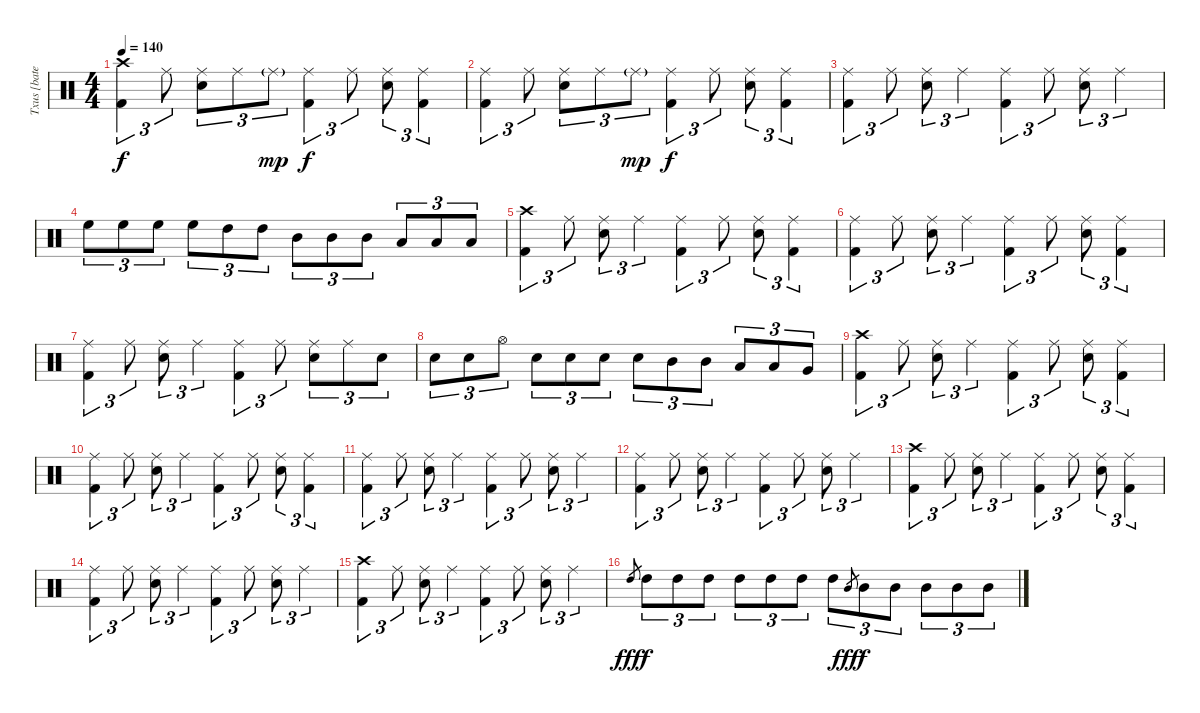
\track ("Txus [bateria]" "Txus [bate") {instrument percussion}
\staff {score}
\articulation defaults
\ts (4 4)
\tempo 140
\clef neutral
\ks c
("Crash high (hit)" "Kick (hit) 2").4{tu (3 2) dy f} "Ride (middle)".8{tu (3 2)} ("Ride (middle)" "Snare (hit) 2").8{tu (3 2)} "Ride (middle)".8{tu (3 2)} "Ride (middle)"{g}.8{tu (3 2) dy mp} ("Ride (middle)" "Kick (hit) 2").4{tu (3 2) dy f} "Ride (middle)".8{tu (3 2)} ("Ride (middle)" "Snare (hit) 2").8{tu (3 2)} ("Ride (middle)" "Kick (hit) 2").4{tu (3 2)} |
("Ride (middle)" "Kick (hit) 2").4{tu (3 2)} "Ride (middle)".8{tu (3 2)} ("Ride (middle)" "Snare (hit) 2").8{tu (3 2)} "Ride (middle)".8{tu (3 2)} "Ride (middle)"{g}.8{tu (3 2) dy mp} ("Ride (middle)" "Kick (hit) 2").4{tu (3 2) dy f} "Ride (middle)".8{tu (3 2)} ("Ride (middle)" "Snare (hit) 2").8{tu (3 2)} ("Ride (middle)" "Kick (hit) 2").4{tu (3 2)} |
("Ride (middle)" "Kick (hit) 2").4{tu (3 2)} "Ride (middle)".8{tu (3 2)} ("Ride (middle)" "Snare (hit) 2").8{tu (3 2)} "Ride (middle)".4{tu (3 2)} ("Ride (middle)" "Kick (hit) 2").4{tu (3 2)} "Ride (middle)".8{tu (3 2)} ("Ride (middle)" "Snare (hit) 2").8{tu (3 2)} "Ride (middle)".4{tu (3 2)} |
"High Floor Tom (hit)".8{tu (3 2)} "High Floor Tom (hit)".8{tu (3 2)} "High Floor Tom (hit)".8{tu (3 2)} "High Floor Tom (hit)".8{tu (3 2)} "High Tom (hit)".8{tu (3 2)} "High Tom (hit)".8{tu (3 2)} "Mid Tom (hit)".8{tu (3 2)} "Mid Tom (hit)".8{tu (3 2)} "Mid Tom (hit)".8{tu (3 2)} "Low Tom (hit)".8{tu (3 2)} "Low Tom (hit)".8{tu (3 2)} "Low Tom (hit)".8{tu (3 2)} |
("Crash high (hit)" "Kick (hit) 2").4{tu (3 2)} "Ride (middle)".8{tu (3 2)} ("Ride (middle)" "Snare (hit) 2").8{tu (3 2)} "Ride (middle)".4{tu (3 2)} ("Ride (middle)" "Kick (hit) 2").4{tu (3 2)} "Ride (middle)".8{tu (3 2)} ("Ride (middle)" "Snare (hit) 2").8{tu (3 2)} ("Ride (middle)" "Kick (hit) 2").4{tu (3 2)} |
("Ride (middle)" "Kick (hit) 2").4{tu (3 2)} "Ride (middle)".8{tu (3 2)} ("Ride (middle)" "Snare (hit) 2").8{tu (3 2)} "Ride (middle)".4{tu (3 2)} ("Ride (middle)" "Kick (hit) 2").4{tu (3 2)} "Ride (middle)".8{tu (3 2)} ("Ride (middle)" "Snare (hit) 2").8{tu (3 2)} ("Ride (middle)" "Kick (hit) 2").4{tu (3 2)} |
("Ride (middle)" "Kick (hit) 2").4{tu (3 2)} "Ride (middle)".8{tu (3 2)} ("Ride (middle)" "Snare (hit) 2").8{tu (3 2)} "Ride (middle)".4{tu (3 2)} ("Ride (middle)" "Kick (hit) 2").4{tu (3 2)} "Ride (middle)".8{tu (3 2)} ("Ride (middle)" "Snare (hit) 2").8{tu (3 2)} "Ride (middle)".8{tu (3 2)} "Snare (hit) 2".8{tu (3 2)} |
"Snare (hit) 2".8{tu (3 2)} "Snare (hit) 2".8{tu (3 2)} "Hi-Hat (open)".8{tu (3 2)} "Snare (hit) 2".8{tu (3 2)} "Snare (hit) 2".8{tu (3 2)} "Snare (hit) 2".8{tu (3 2)} "Snare (hit) 2".8{tu (3 2)} "Mid Tom (hit)".8{tu (3 2)} "Mid Tom (hit)".8{tu (3 2)} "Low Tom (hit)".8{tu (3 2)} "Low Tom (hit)".8{tu (3 2)} "Very Low Tom (hit)".8{tu (3 2)} |
("Crash high (hit)" "Kick (hit) 2").4{tu (3 2)} "Ride (middle)".8{tu (3 2)} ("Ride (middle)" "Snare (hit) 2").8{tu (3 2)} "Ride (middle)".4{tu (3 2)} ("Ride (middle)" "Kick (hit) 2").4{tu (3 2)} "Ride (middle)".8{tu (3 2)} ("Ride (middle)" "Snare (hit) 2").8{tu (3 2)} ("Ride (middle)" "Kick (hit) 2").4{tu (3 2)} |
("Ride (middle)" "Kick (hit) 2").4{tu (3 2)} "Ride (middle)".8{tu (3 2)} ("Ride (middle)" "Snare (hit) 2").8{tu (3 2)} "Ride (middle)".4{tu (3 2)} ("Ride (middle)" "Kick (hit) 2").4{tu (3 2)} "Ride (middle)".8{tu (3 2)} ("Ride (middle)" "Snare (hit) 2").8{tu (3 2)} ("Ride (middle)" "Kick (hit) 2").4{tu (3 2)} |
("Ride (middle)" "Kick (hit) 2").4{tu (3 2)} "Ride (middle)".8{tu (3 2)} ("Ride (middle)" "Snare (hit) 2").8{tu (3 2)} "Ride (middle)".4{tu (3 2)} ("Ride (middle)" "Kick (hit) 2").4{tu (3 2)} "Ride (middle)".8{tu (3 2)} ("Ride (middle)" "Snare (hit) 2").8{tu (3 2)} "Ride (middle)".4{tu (3 2)} |
("Ride (middle)" "Kick (hit) 2").4{tu (3 2)} "Ride (middle)".8{tu (3 2)} ("Ride (middle)" "Snare (hit) 2").8{tu (3 2)} "Ride (middle)".4{tu (3 2)} ("Ride (middle)" "Kick (hit) 2").4{tu (3 2)} "Ride (middle)".8{tu (3 2)} ("Ride (middle)" "Snare (hit) 2").8{tu (3 2)} "Ride (middle)".4{tu (3 2)} |
("Crash high (hit)" "Kick (hit) 2").4{tu (3 2)} "Ride (middle)".8{tu (3 2)} ("Ride (middle)" "Snare (hit) 2").8{tu (3 2)} "Ride (middle)".4{tu (3 2)} ("Ride (middle)" "Kick (hit) 2").4{tu (3 2)} "Ride (middle)".8{tu (3 2)} ("Ride (middle)" "Snare (hit) 2").8{tu (3 2)} ("Ride (middle)" "Kick (hit) 2").4{tu (3 2)} |
("Ride (middle)" "Kick (hit) 2").4{tu (3 2)} "Ride (middle)".8{tu (3 2)} ("Ride (middle)" "Snare (hit) 2").8{tu (3 2)} "Ride (middle)".4{tu (3 2)} ("Ride (middle)" "Kick (hit) 2").4{tu (3 2)} "Ride (middle)".8{tu (3 2)} ("Ride (middle)" "Snare (hit) 2").8{tu (3 2)} "Ride (middle)".4{tu (3 2)} |
("Crash high (hit)" "Kick (hit) 2").4{tu (3 2)} "Ride (middle)".8{tu (3 2)} ("Ride (middle)" "Snare (hit) 2").8{tu (3 2)} "Ride (middle)".4{tu (3 2)} ("Ride (middle)" "Kick (hit) 2").4{tu (3 2)} "Ride (middle)".8{tu (3 2)} ("Ride (middle)" "Snare (hit) 2").8{tu (3 2)} "Ride (middle)".4{tu (3 2)} |
"High Tom (hit)".8{gr dy fff} "High Tom (hit)".8{tu (3 2) dy f} "High Tom (hit)".8{tu (3 2)} "High Tom (hit)".8{tu (3 2)} "High Tom (hit)".8{tu (3 2)} "High Tom (hit)".8{tu (3 2)} "High Tom (hit)".8{tu (3 2)} "High Tom (hit)".8{tu (3 2)} "Mid Tom (hit)".8{gr dy fff} "Mid Tom (hit)".8{tu (3 2) dy f} "Mid Tom (hit)".8{tu (3 2)} "Mid Tom (hit)".8{tu (3 2)} "Mid Tom (hit)".8{tu (3 2)} "Mid Tom (hit)".8{tu (3 2)}
